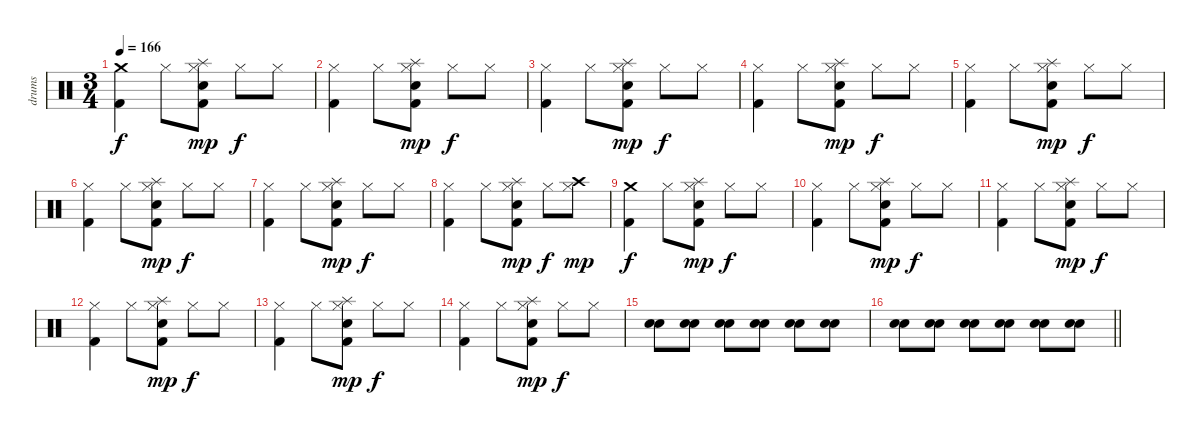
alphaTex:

\track ("drums" "drums") {instrument percussion}
\staff {score}
\articulation defaults
\ts (3 4)
\tempo 166
\clef neutral
\ks c
("Crash medium (hit)" "Kick (hit) 2").4{dy f} "Hi-Hat (closed)".8 ("Splash (hit)" "Hi-Hat (closed)" "Electric Snare (hit)" "Kick (hit) 2").8{dy mp} "Hi-Hat (closed)".8{dy f} "Hi-Hat (closed)".8 |
("Hi-Hat (closed)" "Kick (hit) 2").4 "Hi-Hat (closed)".8 ("Splash (hit)" "Hi-Hat (closed)" "Electric Snare (hit)" "Kick (hit) 2").8{dy mp} "Hi-Hat (closed)".8{dy f} "Hi-Hat (closed)".8 |
("Hi-Hat (closed)" "Kick (hit) 2").4 "Hi-Hat (closed)".8 ("Splash (hit)" "Hi-Hat (closed)" "Electric Snare (hit)" "Kick (hit) 2").8{dy mp} "Hi-Hat (closed)".8{dy f} "Hi-Hat (closed)".8 |
("Hi-Hat (closed)" "Kick (hit) 2").4 "Hi-Hat (closed)".8 ("Splash (hit)" "Hi-Hat (closed)" "Electric Snare (hit)" "Kick (hit) 2").8{dy mp} "Hi-Hat (closed)".8{dy f} "Hi-Hat (closed)".8 |
("Hi-Hat (closed)" "Kick (hit) 2").4 "Hi-Hat (closed)".8 ("Splash (hit)" "Hi-Hat (closed)" "Electric Snare (hit)" "Kick (hit) 2").8{dy mp} "Hi-Hat (closed)".8{dy f} "Hi-Hat (closed)".8 |
("Hi-Hat (closed)" "Kick (hit) 2").4 "Hi-Hat (closed)".8 ("Splash (hit)" "Hi-Hat (closed)" "Electric Snare (hit)" "Kick (hit) 2").8{dy mp} "Hi-Hat (closed)".8{dy f} "Hi-Hat (closed)".8 |
("Hi-Hat (closed)" "Kick (hit) 2").4 "Hi-Hat (closed)".8 ("Splash (hit)" "Hi-Hat (closed)" "Electric Snare (hit)" "Kick (hit) 2").8{dy mp} "Hi-Hat (closed)".8{dy f} "Hi-Hat (closed)".8 |
("Hi-Hat (closed)" "Kick (hit) 2").4 "Hi-Hat (closed)".8 ("Splash (hit)" "Hi-Hat (closed)" "Electric Snare (hit)" "Kick (hit) 2").8{dy mp} "Hi-Hat (closed)".8{dy f} ("Crash high (hit)" "Hi-Hat (closed)").8{dy mp} |
("Crash medium (hit)" "Kick (hit) 2").4{dy f} "Hi-Hat (closed)".8 ("Splash (hit)" "Hi-Hat (closed)" "Electric Snare (hit)" "Kick (hit) 2").8{dy mp} "Hi-Hat (closed)".8{dy f} "Hi-Hat (closed)".8 |
("Hi-Hat (closed)" "Kick (hit) 2").4 "Hi-Hat (closed)".8 ("Splash (hit)" "Hi-Hat (closed)" "Electric Snare (hit)" "Kick (hit) 2").8{dy mp} "Hi-Hat (closed)".8{dy f} "Hi-Hat (closed)".8 |
("Hi-Hat (closed)" "Kick (hit) 2").4 "Hi-Hat (closed)".8 ("Splash (hit)" "Hi-Hat (closed)" "Electric Snare (hit)" "Kick (hit) 2").8{dy mp} "Hi-Hat (closed)".8{dy f} "Hi-Hat (closed)".8 |
("Hi-Hat (closed)" "Kick (hit) 2").4 "Hi-Hat (closed)".8 ("Splash (hit)" "Hi-Hat (closed)" "Electric Snare (hit)" "Kick (hit) 2").8{dy mp} "Hi-Hat (closed)".8{dy f} "Hi-Hat (closed)".8 |
("Hi-Hat (closed)" "Kick (hit) 2").4 "Hi-Hat (closed)".8 ("Splash (hit)" "Hi-Hat (closed)" "Electric Snare (hit)" "Kick (hit) 2").8{dy mp} "Hi-Hat (closed)".8{dy f} "Hi-Hat (closed)".8 |
("Hi-Hat (closed)" "Kick (hit) 2").4 "Hi-Hat (closed)".8 ("Splash (hit)" "Hi-Hat (closed)" "Electric Snare (hit)" "Kick (hit) 2").8{dy mp} "Hi-Hat (closed)".8{dy f} "Hi-Hat (closed)".8 |
("Snare (hit) 2" "Electric Snare (hit)").8 ("Snare (hit) 2" "Electric Snare (hit)").8 ("Snare (hit) 2" "Electric Snare (hit)").8 ("Snare (hit) 2" "Electric Snare (hit)").8 ("Snare (hit) 2" "Electric Snare (hit)").8 ("Snare (hit) 2" "Electric Snare (hit)").8 |
\barLineRight lightlight
("Snare (hit) 2" "Electric Snare (hit)").8 ("Snare (hit) 2" "Electric Snare (hit)").8 ("Snare (hit) 2" "Electric Snare (hit)").8 ("Snare (hit) 2" "Electric Snare (hit)").8 ("Snare (hit) 2" "Electric Snare (hit)").8 ("Snare (hit) 2" "Electric Snare (hit)").8
